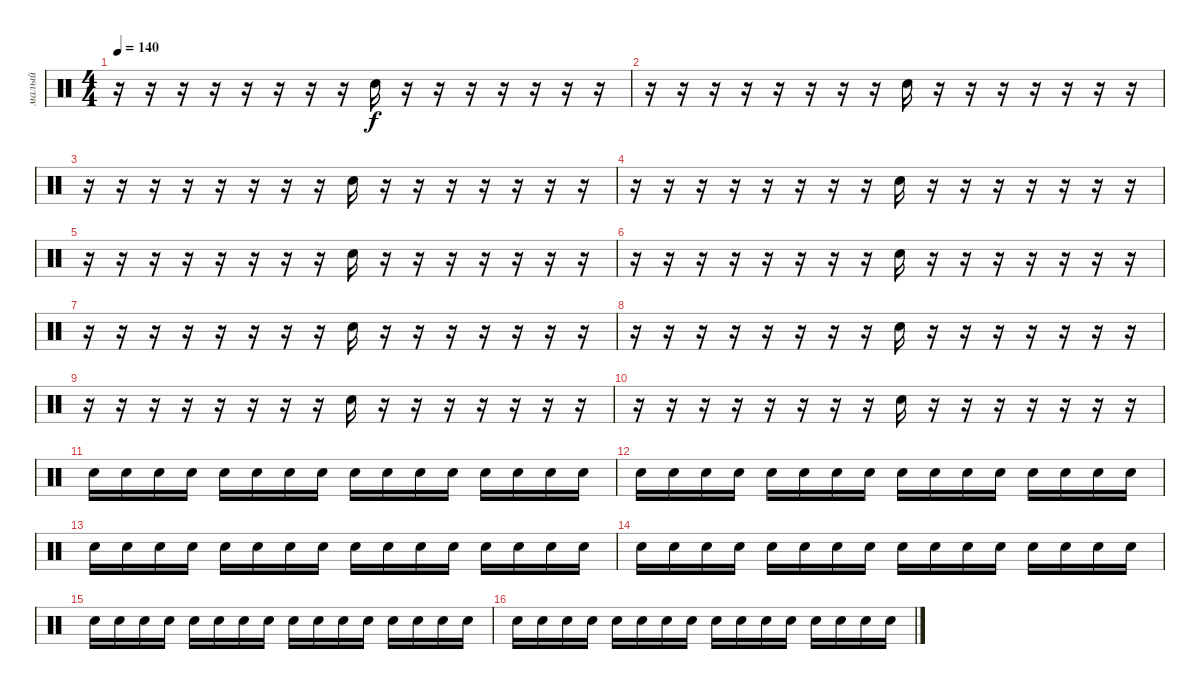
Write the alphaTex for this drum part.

\track ("малый" "малый") {mute instrument percussion}
\staff {score}
\articulation defaults
\ts (4 4)
\tempo 140
\clef neutral
\ks c
r.16{dy f} r.16 r.16 r.16 r.16 r.16 r.16 r.16 "Electric Snare (hit)".16 r.16 r.16 r.16 r.16 r.16 r.16 r.16 |
r.16 r.16 r.16 r.16 r.16 r.16 r.16 r.16 "Electric Snare (hit)".16 r.16 r.16 r.16 r.16 r.16 r.16 r.16 |
r.16 r.16 r.16 r.16 r.16 r.16 r.16 r.16 "Electric Snare (hit)".16 r.16 r.16 r.16 r.16 r.16 r.16 r.16 |
r.16 r.16 r.16 r.16 r.16 r.16 r.16 r.16 "Electric Snare (hit)".16 r.16 r.16 r.16 r.16 r.16 r.16 r.16 |
r.16 r.16 r.16 r.16 r.16 r.16 r.16 r.16 "Electric Snare (hit)".16 r.16 r.16 r.16 r.16 r.16 r.16 r.16 |
r.16 r.16 r.16 r.16 r.16 r.16 r.16 r.16 "Electric Snare (hit)".16 r.16 r.16 r.16 r.16 r.16 r.16 r.16 |
r.16 r.16 r.16 r.16 r.16 r.16 r.16 r.16 "Electric Snare (hit)".16 r.16 r.16 r.16 r.16 r.16 r.16 r.16 |
r.16 r.16 r.16 r.16 r.16 r.16 r.16 r.16 "Electric Snare (hit)".16 r.16 r.16 r.16 r.16 r.16 r.16 r.16 |
r.16 r.16 r.16 r.16 r.16 r.16 r.16 r.16 "Electric Snare (hit)".16 r.16 r.16 r.16 r.16 r.16 r.16 r.16 |
r.16 r.16 r.16 r.16 r.16 r.16 r.16 r.16 "Electric Snare (hit)".16 r.16 r.16 r.16 r.16 r.16 r.16 r.16 |
"Electric Snare (hit)".16 "Electric Snare (hit)".16 "Electric Snare (hit)".16 "Electric Snare (hit)".16 "Electric Snare (hit)".16 "Electric Snare (hit)".16 "Electric Snare (hit)".16 "Electric Snare (hit)".16 "Electric Snare (hit)".16 "Electric Snare (hit)".16 "Electric Snare (hit)".16 "Electric Snare (hit)".16 "Electric Snare (hit)".16 "Electric Snare (hit)".16 "Electric Snare (hit)".16 "Electric Snare (hit)".16 |
"Electric Snare (hit)".16 "Electric Snare (hit)".16 "Electric Snare (hit)".16 "Electric Snare (hit)".16 "Electric Snare (hit)".16 "Electric Snare (hit)".16 "Electric Snare (hit)".16 "Electric Snare (hit)".16 "Electric Snare (hit)".16 "Electric Snare (hit)".16 "Electric Snare (hit)".16 "Electric Snare (hit)".16 "Electric Snare (hit)".16 "Electric Snare (hit)".16 "Electric Snare (hit)".16 "Electric Snare (hit)".16 |
"Electric Snare (hit)".16 "Electric Snare (hit)".16 "Electric Snare (hit)".16 "Electric Snare (hit)".16 "Electric Snare (hit)".16 "Electric Snare (hit)".16 "Electric Snare (hit)".16 "Electric Snare (hit)".16 "Electric Snare (hit)".16 "Electric Snare (hit)".16 "Electric Snare (hit)".16 "Electric Snare (hit)".16 "Electric Snare (hit)".16 "Electric Snare (hit)".16 "Electric Snare (hit)".16 "Electric Snare (hit)".16 |
"Electric Snare (hit)".16 "Electric Snare (hit)".16 "Electric Snare (hit)".16 "Electric Snare (hit)".16 "Electric Snare (hit)".16 "Electric Snare (hit)".16 "Electric Snare (hit)".16 "Electric Snare (hit)".16 "Electric Snare (hit)".16 "Electric Snare (hit)".16 "Electric Snare (hit)".16 "Electric Snare (hit)".16 "Electric Snare (hit)".16 "Electric Snare (hit)".16 "Electric Snare (hit)".16 "Electric Snare (hit)".16 |
"Electric Snare (hit)".16 "Electric Snare (hit)".16 "Electric Snare (hit)".16 "Electric Snare (hit)".16 "Electric Snare (hit)".16 "Electric Snare (hit)".16 "Electric Snare (hit)".16 "Electric Snare (hit)".16 "Electric Snare (hit)".16 "Electric Snare (hit)".16 "Electric Snare (hit)".16 "Electric Snare (hit)".16 "Electric Snare (hit)".16 "Electric Snare (hit)".16 "Electric Snare (hit)".16 "Electric Snare (hit)".16 |
"Electric Snare (hit)".16 "Electric Snare (hit)".16 "Electric Snare (hit)".16 "Electric Snare (hit)".16 "Electric Snare (hit)".16 "Electric Snare (hit)".16 "Electric Snare (hit)".16 "Electric Snare (hit)".16 "Electric Snare (hit)".16 "Electric Snare (hit)".16 "Electric Snare (hit)".16 "Electric Snare (hit)".16 "Electric Snare (hit)".16 "Electric Snare (hit)".16 "Electric Snare (hit)".16 "Electric Snare (hit)".16
